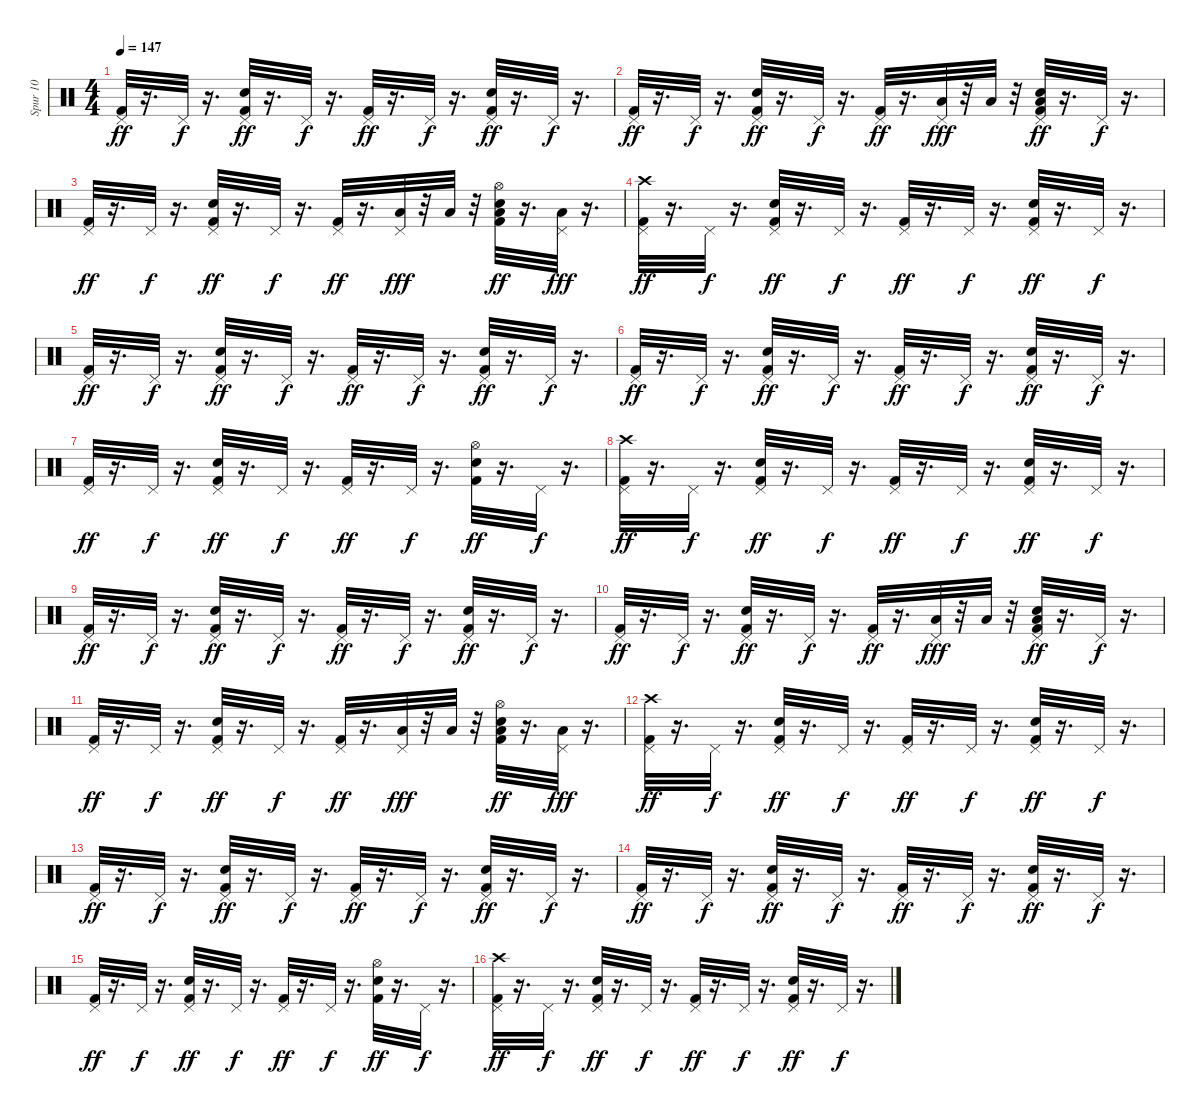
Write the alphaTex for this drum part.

\track ("Spur 10" "Spur 10") {instrument percussion}
\staff {score}
\articulation defaults
\ts (4 4)
\tempo 147
\clef neutral
\ks c
("Pedal Hi-Hat (hit)" "Kick (hit) 2").32{dy ff} r.16{d} "Pedal Hi-Hat (hit)".32{dy f} r.16{d} ("Snare (hit) 2" "Kick (hit) 2" "Pedal Hi-Hat (hit)").32{dy ff} r.16{d} "Pedal Hi-Hat (hit)".32{dy f} r.16{d} ("Kick (hit) 2" "Pedal Hi-Hat (hit)").32{dy ff} r.16{d} "Pedal Hi-Hat (hit)".32{dy f} r.16{d} ("Snare (hit) 2" "Pedal Hi-Hat (hit)" "Kick (hit) 2").32{dy ff} r.16{d} "Pedal Hi-Hat (hit)".32{dy f} r.16{d} |
("Pedal Hi-Hat (hit)" "Kick (hit) 2").32{dy ff} r.16{d} "Pedal Hi-Hat (hit)".32{dy f} r.16{d} ("Snare (hit) 2" "Kick (hit) 2" "Pedal Hi-Hat (hit)").32{dy ff} r.16{d} "Pedal Hi-Hat (hit)".32{dy f} r.16{d} ("Kick (hit) 2" "Pedal Hi-Hat (hit)").32{dy ff} r.16{d} ("Low Tom (hit)" "Pedal Hi-Hat (hit)").32{dy fff} r.32 "Low Tom (hit)".32 r.32 ("Low Tom (hit)" "Snare (hit) 2" "Pedal Hi-Hat (hit)" "Kick (hit) 2").32{dy ff} r.16{d} "Pedal Hi-Hat (hit)".32{dy f} r.16{d} |
("Pedal Hi-Hat (hit)" "Kick (hit) 2").32{dy ff} r.16{d} "Pedal Hi-Hat (hit)".32{dy f} r.16{d} ("Snare (hit) 2" "Kick (hit) 2" "Pedal Hi-Hat (hit)").32{dy ff} r.16{d} "Pedal Hi-Hat (hit)".32{dy f} r.16{d} ("Kick (hit) 2" "Pedal Hi-Hat (hit)").32{dy ff} r.16{d} ("Low Tom (hit)" "Pedal Hi-Hat (hit)").32{dy fff} r.32 "Low Tom (hit)".32 r.32 ("Low Tom (hit)" "Snare (hit) 2" "Hi-Hat (open)" "Kick (hit) 2").32{dy ff} r.16{d} ("Low Floor Tom (hit)" "Pedal Hi-Hat (hit)").32{dy fff} r.16{d} |
("Pedal Hi-Hat (hit)" "Kick (hit) 2" "Crash high (hit)").32{dy ff} r.16{d} "Pedal Hi-Hat (hit)".32{dy f} r.16{d} ("Snare (hit) 2" "Kick (hit) 2" "Pedal Hi-Hat (hit)").32{dy ff} r.16{d} "Pedal Hi-Hat (hit)".32{dy f} r.16{d} ("Kick (hit) 2" "Pedal Hi-Hat (hit)").32{dy ff} r.16{d} "Pedal Hi-Hat (hit)".32{dy f} r.16{d} ("Snare (hit) 2" "Pedal Hi-Hat (hit)" "Kick (hit) 2").32{dy ff} r.16{d} "Pedal Hi-Hat (hit)".32{dy f} r.16{d} |
("Pedal Hi-Hat (hit)" "Kick (hit) 2").32{dy ff} r.16{d} "Pedal Hi-Hat (hit)".32{dy f} r.16{d} ("Snare (hit) 2" "Kick (hit) 2" "Pedal Hi-Hat (hit)").32{dy ff} r.16{d} "Pedal Hi-Hat (hit)".32{dy f} r.16{d} ("Kick (hit) 2" "Pedal Hi-Hat (hit)").32{dy ff} r.16{d} "Pedal Hi-Hat (hit)".32{dy f} r.16{d} ("Snare (hit) 2" "Pedal Hi-Hat (hit)" "Kick (hit) 2").32{dy ff} r.16{d} "Pedal Hi-Hat (hit)".32{dy f} r.16{d} |
("Pedal Hi-Hat (hit)" "Kick (hit) 2").32{dy ff} r.16{d} "Pedal Hi-Hat (hit)".32{dy f} r.16{d} ("Snare (hit) 2" "Kick (hit) 2" "Pedal Hi-Hat (hit)").32{dy ff} r.16{d} "Pedal Hi-Hat (hit)".32{dy f} r.16{d} ("Kick (hit) 2" "Pedal Hi-Hat (hit)").32{dy ff} r.16{d} "Pedal Hi-Hat (hit)".32{dy f} r.16{d} ("Snare (hit) 2" "Pedal Hi-Hat (hit)" "Kick (hit) 2").32{dy ff} r.16{d} "Pedal Hi-Hat (hit)".32{dy f} r.16{d} |
("Pedal Hi-Hat (hit)" "Kick (hit) 2").32{dy ff} r.16{d} "Pedal Hi-Hat (hit)".32{dy f} r.16{d} ("Snare (hit) 2" "Kick (hit) 2" "Pedal Hi-Hat (hit)").32{dy ff volume 12} r.16{d} "Pedal Hi-Hat (hit)".32{dy f volume 12} r.16{d} ("Kick (hit) 2" "Pedal Hi-Hat (hit)").32{dy ff volume 12} r.16{d} "Pedal Hi-Hat (hit)".32{dy f volume 12} r.16{d} ("Snare (hit) 2" "Hi-Hat (open)" "Kick (hit) 2").32{dy ff volume 12} r.16{d} "Pedal Hi-Hat (hit)".32{dy f volume 12} r.16{d} |
("Pedal Hi-Hat (hit)" "Kick (hit) 2" "Crash high (hit)").32{dy ff volume 12} r.16{d} "Pedal Hi-Hat (hit)".32{dy f volume 11} r.16{d} ("Snare (hit) 2" "Kick (hit) 2" "Pedal Hi-Hat (hit)").32{dy ff volume 11} r.16{d} "Pedal Hi-Hat (hit)".32{dy f volume 11} r.16{d} ("Kick (hit) 2" "Pedal Hi-Hat (hit)").32{dy ff volume 11} r.16{d} "Pedal Hi-Hat (hit)".32{dy f volume 11} r.16{d} ("Snare (hit) 2" "Pedal Hi-Hat (hit)" "Kick (hit) 2").32{dy ff volume 11} r.16{d} "Pedal Hi-Hat (hit)".32{dy f volume 11} r.16{d} |
("Pedal Hi-Hat (hit)" "Kick (hit) 2").32{dy ff volume 10} r.16{d} "Pedal Hi-Hat (hit)".32{dy f volume 10} r.16{d} ("Snare (hit) 2" "Kick (hit) 2" "Pedal Hi-Hat (hit)").32{dy ff volume 10} r.16{d} "Pedal Hi-Hat (hit)".32{dy f volume 10} r.16{d} ("Kick (hit) 2" "Pedal Hi-Hat (hit)").32{dy ff volume 10} r.16{d} "Pedal Hi-Hat (hit)".32{dy f volume 10} r.16{d} ("Snare (hit) 2" "Pedal Hi-Hat (hit)" "Kick (hit) 2").32{dy ff volume 10} r.16{d} "Pedal Hi-Hat (hit)".32{dy f volume 10} r.16{d} |
("Pedal Hi-Hat (hit)" "Kick (hit) 2").32{dy ff volume 9} r.16{d} "Pedal Hi-Hat (hit)".32{dy f volume 9} r.16{d} ("Snare (hit) 2" "Kick (hit) 2" "Pedal Hi-Hat (hit)").32{dy ff volume 9} r.16{d} "Pedal Hi-Hat (hit)".32{dy f volume 9} r.16{d} ("Kick (hit) 2" "Pedal Hi-Hat (hit)").32{dy ff volume 9} r.16{d} ("Low Tom (hit)" "Pedal Hi-Hat (hit)").32{dy fff volume 9} r.32 "Low Tom (hit)".32 r.32 ("Low Tom (hit)" "Snare (hit) 2" "Pedal Hi-Hat (hit)" "Kick (hit) 2").32{dy ff volume 9} r.16{d} "Pedal Hi-Hat (hit)".32{dy f volume 8} r.16{d} |
("Pedal Hi-Hat (hit)" "Kick (hit) 2").32{dy ff volume 8} r.16{d} "Pedal Hi-Hat (hit)".32{dy f volume 8} r.16{d} ("Snare (hit) 2" "Kick (hit) 2" "Pedal Hi-Hat (hit)").32{dy ff volume 8} r.16{d} "Pedal Hi-Hat (hit)".32{dy f volume 8} r.16{d} ("Kick (hit) 2" "Pedal Hi-Hat (hit)").32{dy ff volume 8} r.16{d} ("Low Tom (hit)" "Pedal Hi-Hat (hit)").32{dy fff volume 8} r.32 "Low Tom (hit)".32 r.32 ("Low Tom (hit)" "Snare (hit) 2" "Hi-Hat (open)" "Kick (hit) 2").32{dy ff volume 8} r.16{d} ("Low Floor Tom (hit)" "Pedal Hi-Hat (hit)").32{dy fff volume 8} r.16{d} |
("Pedal Hi-Hat (hit)" "Kick (hit) 2" "Crash high (hit)").32{dy ff volume 7} r.16{d} "Pedal Hi-Hat (hit)".32{dy f volume 7} r.16{d} ("Snare (hit) 2" "Kick (hit) 2" "Pedal Hi-Hat (hit)").32{dy ff volume 7} r.16{d} "Pedal Hi-Hat (hit)".32{dy f volume 7} r.16{d} ("Kick (hit) 2" "Pedal Hi-Hat (hit)").32{dy ff volume 7} r.16{d} "Pedal Hi-Hat (hit)".32{dy f volume 7} r.16{d} ("Snare (hit) 2" "Pedal Hi-Hat (hit)" "Kick (hit) 2").32{dy ff volume 7} r.16{d} "Pedal Hi-Hat (hit)".32{dy f volume 6} r.16{d} |
("Pedal Hi-Hat (hit)" "Kick (hit) 2").32{dy ff volume 6} r.16{d} "Pedal Hi-Hat (hit)".32{dy f volume 6} r.16{d} ("Snare (hit) 2" "Kick (hit) 2" "Pedal Hi-Hat (hit)").32{dy ff volume 6} r.16{d} "Pedal Hi-Hat (hit)".32{dy f volume 6} r.16{d} ("Kick (hit) 2" "Pedal Hi-Hat (hit)").32{dy ff volume 6} r.16{d} "Pedal Hi-Hat (hit)".32{dy f volume 6} r.16{d} ("Snare (hit) 2" "Pedal Hi-Hat (hit)" "Kick (hit) 2").32{dy ff volume 6} r.16{d} "Pedal Hi-Hat (hit)".32{dy f volume 6} r.16{d} |
("Pedal Hi-Hat (hit)" "Kick (hit) 2").32{dy ff volume 5} r.16{d} "Pedal Hi-Hat (hit)".32{dy f} r.16{d} ("Snare (hit) 2" "Kick (hit) 2" "Pedal Hi-Hat (hit)").32{dy ff volume 5} r.16{d} "Pedal Hi-Hat (hit)".32{dy f volume 5} r.16{d} ("Kick (hit) 2" "Pedal Hi-Hat (hit)").32{dy ff volume 5} r.16{d} "Pedal Hi-Hat (hit)".32{dy f volume 5} r.16{d} ("Snare (hit) 2" "Pedal Hi-Hat (hit)" "Kick (hit) 2").32{dy ff volume 5} r.16{d} "Pedal Hi-Hat (hit)".32{dy f volume 5} r.16{d} |
("Pedal Hi-Hat (hit)" "Kick (hit) 2").32{dy ff volume 4} r.16{d} "Pedal Hi-Hat (hit)".32{dy f volume 4} r.16{d} ("Snare (hit) 2" "Kick (hit) 2" "Pedal Hi-Hat (hit)").32{dy ff volume 4} r.16{d} "Pedal Hi-Hat (hit)".32{dy f volume 4} r.16{d} ("Kick (hit) 2" "Pedal Hi-Hat (hit)").32{dy ff volume 4} r.16{d} "Pedal Hi-Hat (hit)".32{dy f volume 4} r.16{d} ("Snare (hit) 2" "Hi-Hat (open)" "Kick (hit) 2").32{dy ff volume 4} r.16{d} "Pedal Hi-Hat (hit)".32{dy f volume 4} r.16{d} |
("Pedal Hi-Hat (hit)" "Kick (hit) 2" "Crash high (hit)").32{dy ff volume 4} r.16{d} "Pedal Hi-Hat (hit)".32{dy f volume 3} r.16{d} ("Snare (hit) 2" "Kick (hit) 2" "Pedal Hi-Hat (hit)").32{dy ff volume 3} r.16{d} "Pedal Hi-Hat (hit)".32{dy f volume 3} r.16{d} ("Kick (hit) 2" "Pedal Hi-Hat (hit)").32{dy ff volume 3} r.16{d} "Pedal Hi-Hat (hit)".32{dy f volume 3} r.16{d} ("Snare (hit) 2" "Pedal Hi-Hat (hit)" "Kick (hit) 2").32{dy ff volume 3} r.16{d} "Pedal Hi-Hat (hit)".32{dy f volume 3} r.16{d}
